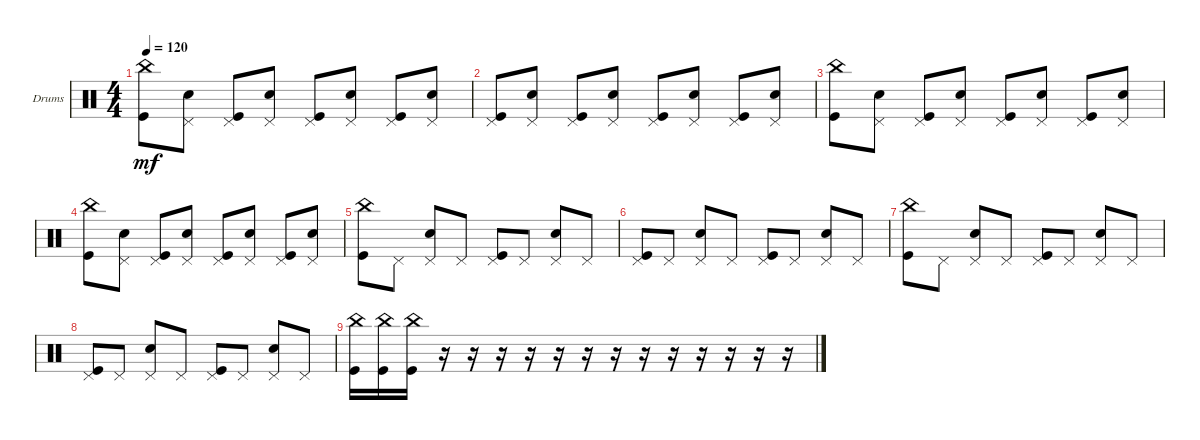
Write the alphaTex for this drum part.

\defaultSystemsLayout 4
\bracketExtendMode groupsimilarinstruments
\firstSystemTrackNameOrientation horizontal
\otherSystemsTrackNameOrientation horizontal
\track ("Drumkit" "Drums") {instrument percussion}
\staff {score}
\articulation defaults
\ts (4 4)
\tempo 120
\clef neutral
\ks c
("Kick (hit)" "China (hit)").8{dy mf} ("Pedal Hi-Hat (hit)" "Snare (hit) 2").8 ("Pedal Hi-Hat (hit)" "Kick (hit)").8 ("Pedal Hi-Hat (hit)" "Snare (hit) 2").8 ("Kick (hit)" "Pedal Hi-Hat (hit)").8 ("Pedal Hi-Hat (hit)" "Snare (hit) 2").8 ("Pedal Hi-Hat (hit)" "Kick (hit)").8 ("Pedal Hi-Hat (hit)" "Snare (hit) 2").8 |
("Kick (hit)" "Pedal Hi-Hat (hit)").8 ("Pedal Hi-Hat (hit)" "Snare (hit) 2").8 ("Pedal Hi-Hat (hit)" "Kick (hit)").8 ("Pedal Hi-Hat (hit)" "Snare (hit) 2").8 ("Kick (hit)" "Pedal Hi-Hat (hit)").8 ("Pedal Hi-Hat (hit)" "Snare (hit) 2").8 ("Pedal Hi-Hat (hit)" "Kick (hit)").8 ("Pedal Hi-Hat (hit)" "Snare (hit) 2").8 |
("Kick (hit)" "China (hit)").8 ("Pedal Hi-Hat (hit)" "Snare (hit) 2").8 ("Pedal Hi-Hat (hit)" "Kick (hit)").8 ("Pedal Hi-Hat (hit)" "Snare (hit) 2").8 ("Kick (hit)" "Pedal Hi-Hat (hit)").8 ("Pedal Hi-Hat (hit)" "Snare (hit) 2").8 ("Pedal Hi-Hat (hit)" "Kick (hit)").8 ("Pedal Hi-Hat (hit)" "Snare (hit) 2").8 |
("Kick (hit)" "China (hit)").8 ("Pedal Hi-Hat (hit)" "Snare (hit) 2").8 ("Pedal Hi-Hat (hit)" "Kick (hit)").8 ("Pedal Hi-Hat (hit)" "Snare (hit) 2").8 ("Kick (hit)" "Pedal Hi-Hat (hit)").8 ("Pedal Hi-Hat (hit)" "Snare (hit) 2").8 ("Pedal Hi-Hat (hit)" "Kick (hit)").8 ("Pedal Hi-Hat (hit)" "Snare (hit) 2").8 |
("Kick (hit)" "China (hit)").8 "Pedal Hi-Hat (hit)".8 ("Snare (hit) 2" "Pedal Hi-Hat (hit)").8 "Pedal Hi-Hat (hit)".8 ("Kick (hit)" "Pedal Hi-Hat (hit)").8 "Pedal Hi-Hat (hit)".8 ("Snare (hit) 2" "Pedal Hi-Hat (hit)").8 "Pedal Hi-Hat (hit)".8 |
("Kick (hit)" "Pedal Hi-Hat (hit)").8 "Pedal Hi-Hat (hit)".8 ("Snare (hit) 2" "Pedal Hi-Hat (hit)").8 "Pedal Hi-Hat (hit)".8 ("Kick (hit)" "Pedal Hi-Hat (hit)").8 "Pedal Hi-Hat (hit)".8 ("Snare (hit) 2" "Pedal Hi-Hat (hit)").8 "Pedal Hi-Hat (hit)".8 |
("Kick (hit)" "China (hit)").8 "Pedal Hi-Hat (hit)".8 ("Snare (hit) 2" "Pedal Hi-Hat (hit)").8 "Pedal Hi-Hat (hit)".8 ("Kick (hit)" "Pedal Hi-Hat (hit)").8 "Pedal Hi-Hat (hit)".8 ("Snare (hit) 2" "Pedal Hi-Hat (hit)").8 "Pedal Hi-Hat (hit)".8 |
("Kick (hit)" "Pedal Hi-Hat (hit)").8 "Pedal Hi-Hat (hit)".8 ("Snare (hit) 2" "Pedal Hi-Hat (hit)").8 "Pedal Hi-Hat (hit)".8 ("Kick (hit)" "Pedal Hi-Hat (hit)").8 "Pedal Hi-Hat (hit)".8 ("Snare (hit) 2" "Pedal Hi-Hat (hit)").8 "Pedal Hi-Hat (hit)".8 |
("Kick (hit)" "China (hit)").16 ("Kick (hit)" "China (hit)").16 ("Kick (hit)" "China (hit)").16 r.16 r.16 r.16 r.16 r.16 r.16 r.16 r.16 r.16 r.16 r.16 r.16 r.16
